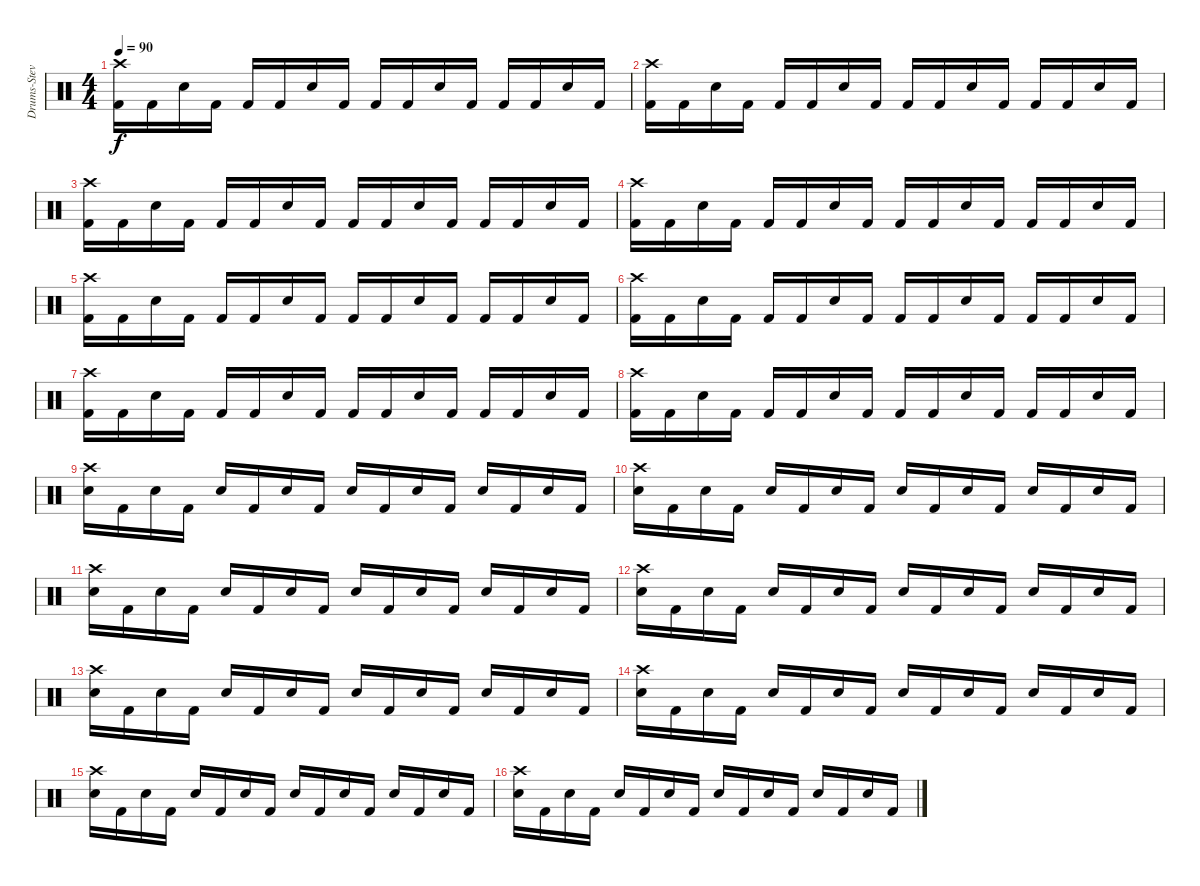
\track ("Drums-Steve" "Drums-Stev") {instrument percussion}
\staff {score}
\articulation defaults
\ts (4 4)
\tempo 90
\clef neutral
\ks c
("Crash high (hit)" "Kick (hit) 2").16{dy f} "Kick (hit) 2".16 "Electric Snare (hit)".16 "Kick (hit) 2".16 "Kick (hit) 2".16 "Kick (hit) 2".16 "Electric Snare (hit)".16 "Kick (hit) 2".16 "Kick (hit) 2".16 "Kick (hit) 2".16 "Electric Snare (hit)".16 "Kick (hit) 2".16 "Kick (hit) 2".16 "Kick (hit) 2".16 "Electric Snare (hit)".16 "Kick (hit) 2".16 |
("Crash high (hit)" "Kick (hit) 2").16 "Kick (hit) 2".16 "Electric Snare (hit)".16 "Kick (hit) 2".16 "Kick (hit) 2".16 "Kick (hit) 2".16 "Electric Snare (hit)".16 "Kick (hit) 2".16 "Kick (hit) 2".16 "Kick (hit) 2".16 "Electric Snare (hit)".16 "Kick (hit) 2".16 "Kick (hit) 2".16 "Kick (hit) 2".16 "Electric Snare (hit)".16 "Kick (hit) 2".16 |
("Crash high (hit)" "Kick (hit) 2").16 "Kick (hit) 2".16 "Electric Snare (hit)".16 "Kick (hit) 2".16 "Kick (hit) 2".16 "Kick (hit) 2".16 "Electric Snare (hit)".16 "Kick (hit) 2".16 "Kick (hit) 2".16 "Kick (hit) 2".16 "Electric Snare (hit)".16 "Kick (hit) 2".16 "Kick (hit) 2".16 "Kick (hit) 2".16 "Electric Snare (hit)".16 "Kick (hit) 2".16 |
("Crash high (hit)" "Kick (hit) 2").16 "Kick (hit) 2".16 "Electric Snare (hit)".16 "Kick (hit) 2".16 "Kick (hit) 2".16 "Kick (hit) 2".16 "Electric Snare (hit)".16 "Kick (hit) 2".16 "Kick (hit) 2".16 "Kick (hit) 2".16 "Electric Snare (hit)".16 "Kick (hit) 2".16 "Kick (hit) 2".16 "Kick (hit) 2".16 "Electric Snare (hit)".16 "Kick (hit) 2".16 |
("Crash high (hit)" "Kick (hit) 2").16 "Kick (hit) 2".16 "Electric Snare (hit)".16 "Kick (hit) 2".16 "Kick (hit) 2".16 "Kick (hit) 2".16 "Electric Snare (hit)".16 "Kick (hit) 2".16 "Kick (hit) 2".16 "Kick (hit) 2".16 "Electric Snare (hit)".16 "Kick (hit) 2".16 "Kick (hit) 2".16 "Kick (hit) 2".16 "Electric Snare (hit)".16 "Kick (hit) 2".16 |
("Crash high (hit)" "Kick (hit) 2").16 "Kick (hit) 2".16 "Electric Snare (hit)".16 "Kick (hit) 2".16 "Kick (hit) 2".16 "Kick (hit) 2".16 "Electric Snare (hit)".16 "Kick (hit) 2".16 "Kick (hit) 2".16 "Kick (hit) 2".16 "Electric Snare (hit)".16 "Kick (hit) 2".16 "Kick (hit) 2".16 "Kick (hit) 2".16 "Electric Snare (hit)".16 "Kick (hit) 2".16 |
("Crash high (hit)" "Kick (hit) 2").16 "Kick (hit) 2".16 "Electric Snare (hit)".16 "Kick (hit) 2".16 "Kick (hit) 2".16 "Kick (hit) 2".16 "Electric Snare (hit)".16 "Kick (hit) 2".16 "Kick (hit) 2".16 "Kick (hit) 2".16 "Electric Snare (hit)".16 "Kick (hit) 2".16 "Kick (hit) 2".16 "Kick (hit) 2".16 "Electric Snare (hit)".16 "Kick (hit) 2".16 |
("Crash high (hit)" "Kick (hit) 2").16 "Kick (hit) 2".16 "Electric Snare (hit)".16 "Kick (hit) 2".16 "Kick (hit) 2".16 "Kick (hit) 2".16 "Electric Snare (hit)".16 "Kick (hit) 2".16 "Kick (hit) 2".16 "Kick (hit) 2".16 "Electric Snare (hit)".16 "Kick (hit) 2".16 "Kick (hit) 2".16 "Kick (hit) 2".16 "Electric Snare (hit)".16 "Kick (hit) 2".16 |
("Crash high (hit)" "Electric Snare (hit)").16 "Kick (hit) 2".16 "Electric Snare (hit)".16 "Kick (hit) 2".16 "Electric Snare (hit)".16 "Kick (hit) 2".16 "Electric Snare (hit)".16 "Kick (hit) 2".16 "Electric Snare (hit)".16 "Kick (hit) 2".16 "Electric Snare (hit)".16 "Kick (hit) 2".16 "Electric Snare (hit)".16 "Kick (hit) 2".16 "Electric Snare (hit)".16 "Kick (hit) 2".16 |
("Crash high (hit)" "Electric Snare (hit)").16 "Kick (hit) 2".16 "Electric Snare (hit)".16 "Kick (hit) 2".16 "Electric Snare (hit)".16 "Kick (hit) 2".16 "Electric Snare (hit)".16 "Kick (hit) 2".16 "Electric Snare (hit)".16 "Kick (hit) 2".16 "Electric Snare (hit)".16 "Kick (hit) 2".16 "Electric Snare (hit)".16 "Kick (hit) 2".16 "Electric Snare (hit)".16 "Kick (hit) 2".16 |
("Crash high (hit)" "Electric Snare (hit)").16 "Kick (hit) 2".16 "Electric Snare (hit)".16 "Kick (hit) 2".16 "Electric Snare (hit)".16 "Kick (hit) 2".16 "Electric Snare (hit)".16 "Kick (hit) 2".16 "Electric Snare (hit)".16 "Kick (hit) 2".16 "Electric Snare (hit)".16 "Kick (hit) 2".16 "Electric Snare (hit)".16 "Kick (hit) 2".16 "Electric Snare (hit)".16 "Kick (hit) 2".16 |
("Crash high (hit)" "Electric Snare (hit)").16 "Kick (hit) 2".16 "Electric Snare (hit)".16 "Kick (hit) 2".16 "Electric Snare (hit)".16 "Kick (hit) 2".16 "Electric Snare (hit)".16 "Kick (hit) 2".16 "Electric Snare (hit)".16 "Kick (hit) 2".16 "Electric Snare (hit)".16 "Kick (hit) 2".16 "Electric Snare (hit)".16 "Kick (hit) 2".16 "Electric Snare (hit)".16 "Kick (hit) 2".16 |
("Crash high (hit)" "Electric Snare (hit)").16 "Kick (hit) 2".16 "Electric Snare (hit)".16 "Kick (hit) 2".16 "Electric Snare (hit)".16 "Kick (hit) 2".16 "Electric Snare (hit)".16 "Kick (hit) 2".16 "Electric Snare (hit)".16 "Kick (hit) 2".16 "Electric Snare (hit)".16 "Kick (hit) 2".16 "Electric Snare (hit)".16 "Kick (hit) 2".16 "Electric Snare (hit)".16 "Kick (hit) 2".16 |
("Crash high (hit)" "Electric Snare (hit)").16 "Kick (hit) 2".16 "Electric Snare (hit)".16 "Kick (hit) 2".16 "Electric Snare (hit)".16 "Kick (hit) 2".16 "Electric Snare (hit)".16 "Kick (hit) 2".16 "Electric Snare (hit)".16 "Kick (hit) 2".16 "Electric Snare (hit)".16 "Kick (hit) 2".16 "Electric Snare (hit)".16 "Kick (hit) 2".16 "Electric Snare (hit)".16 "Kick (hit) 2".16 |
("Crash high (hit)" "Electric Snare (hit)").16 "Kick (hit) 2".16 "Electric Snare (hit)".16 "Kick (hit) 2".16 "Electric Snare (hit)".16 "Kick (hit) 2".16 "Electric Snare (hit)".16 "Kick (hit) 2".16 "Electric Snare (hit)".16 "Kick (hit) 2".16 "Electric Snare (hit)".16 "Kick (hit) 2".16 "Electric Snare (hit)".16 "Kick (hit) 2".16 "Electric Snare (hit)".16 "Kick (hit) 2".16 |
("Crash high (hit)" "Electric Snare (hit)").16 "Kick (hit) 2".16 "Electric Snare (hit)".16 "Kick (hit) 2".16 "Electric Snare (hit)".16 "Kick (hit) 2".16 "Electric Snare (hit)".16 "Kick (hit) 2".16 "Electric Snare (hit)".16 "Kick (hit) 2".16 "Electric Snare (hit)".16 "Kick (hit) 2".16 "Electric Snare (hit)".16 "Kick (hit) 2".16 "Electric Snare (hit)".16 "Kick (hit) 2".16
